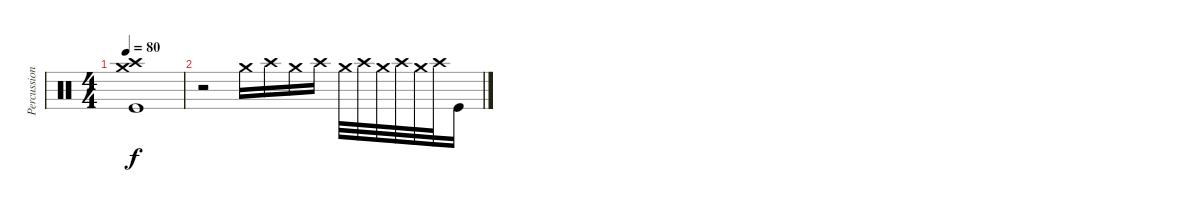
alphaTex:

\track ("Percussion" "Percussion") {instrument percussion}
\staff {score}
\articulation defaults
\ts (4 4)
\tempo 80
\clef neutral
\ks c
("Crash medium (hit)" "Crash high (hit)" "Kick (hit)").1{dy f} |
r.2 "Crash medium (hit)".16 "Crash high (hit)".16 "Crash medium (hit)".16 "Crash high (hit)".16 "Crash medium (hit)".32 "Crash high (hit)".32 "Crash medium (hit)".32 "Crash high (hit)".32 "Crash medium (hit)".32 "Crash high (hit)".32 "Kick (hit)".16
